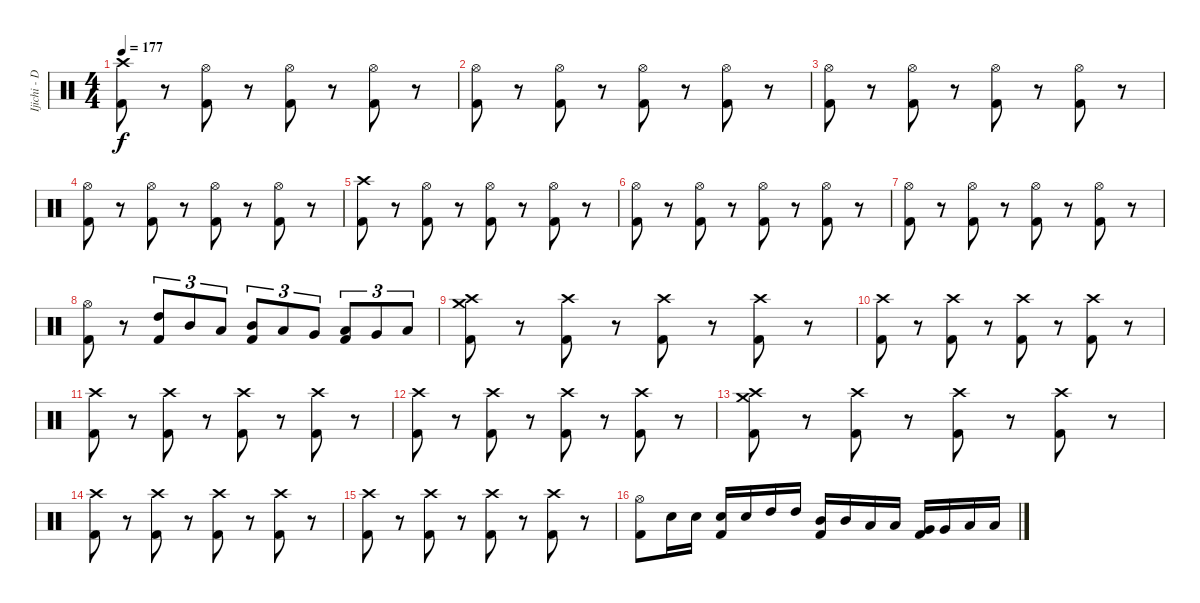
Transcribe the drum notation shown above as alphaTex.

\track ("Ijichi - Drums" "Ijichi - D") {instrument percussion}
\staff {score}
\articulation defaults
\ts (4 4)
\tempo 177
\clef neutral
\ks c
("Crash high (hit)" "Kick (hit) 2").8{dy f} r.8 ("Hi-Hat (open)" "Kick (hit) 2").8 r.8 ("Hi-Hat (open)" "Kick (hit) 2").8 r.8 ("Hi-Hat (open)" "Kick (hit) 2").8 r.8 |
("Hi-Hat (open)" "Kick (hit) 2").8 r.8 ("Hi-Hat (open)" "Kick (hit) 2").8 r.8 ("Hi-Hat (open)" "Kick (hit) 2").8 r.8 ("Hi-Hat (open)" "Kick (hit) 2").8 r.8 |
("Hi-Hat (open)" "Kick (hit) 2").8 r.8 ("Hi-Hat (open)" "Kick (hit) 2").8 r.8 ("Hi-Hat (open)" "Kick (hit) 2").8 r.8 ("Hi-Hat (open)" "Kick (hit) 2").8 r.8 |
("Hi-Hat (open)" "Kick (hit) 2").8 r.8 ("Hi-Hat (open)" "Kick (hit) 2").8 r.8 ("Hi-Hat (open)" "Kick (hit) 2").8 r.8 ("Hi-Hat (open)" "Kick (hit) 2").8 r.8 |
("Crash high (hit)" "Kick (hit) 2").8 r.8 ("Hi-Hat (open)" "Kick (hit) 2").8 r.8 ("Hi-Hat (open)" "Kick (hit) 2").8 r.8 ("Hi-Hat (open)" "Kick (hit) 2").8 r.8 |
("Hi-Hat (open)" "Kick (hit) 2").8 r.8 ("Hi-Hat (open)" "Kick (hit) 2").8 r.8 ("Hi-Hat (open)" "Kick (hit) 2").8 r.8 ("Hi-Hat (open)" "Kick (hit) 2").8 r.8 |
("Hi-Hat (open)" "Kick (hit) 2").8 r.8 ("Hi-Hat (open)" "Kick (hit) 2").8 r.8 ("Hi-Hat (open)" "Kick (hit) 2").8 r.8 ("Hi-Hat (open)" "Kick (hit) 2").8 r.8 |
("Hi-Hat (open)" "Kick (hit) 2").8 r.8 ("High Tom (hit)" "Kick (hit) 2").8{tu (3 2)} "Mid Tom (hit)".8{tu (3 2)} "Low Tom (hit)".8{tu (3 2)} ("Mid Tom (hit)" "Kick (hit) 2").8{tu (3 2)} "Low Tom (hit)".8{tu (3 2)} "Very Low Tom (hit)".8{tu (3 2)} ("Low Tom (hit)" "Kick (hit) 2").8{tu (3 2)} "Very Low Tom (hit)".8{tu (3 2)} "Low Floor Tom (hit)".8{tu (3 2)} |
("Crash high (hit)" "Crash medium (hit)" "Kick (hit) 2").8 r.8 ("Crash high (hit)" "Kick (hit) 2").8 r.8 ("Crash high (hit)" "Kick (hit) 2").8 r.8 ("Crash high (hit)" "Kick (hit) 2").8 r.8 |
("Crash high (hit)" "Kick (hit) 2").8 r.8 ("Crash high (hit)" "Kick (hit) 2").8 r.8 ("Crash high (hit)" "Kick (hit) 2").8 r.8 ("Crash high (hit)" "Kick (hit) 2").8 r.8 |
("Crash high (hit)" "Kick (hit) 2").8 r.8 ("Crash high (hit)" "Kick (hit) 2").8 r.8 ("Crash high (hit)" "Kick (hit) 2").8 r.8 ("Crash high (hit)" "Kick (hit) 2").8 r.8 |
("Crash high (hit)" "Kick (hit) 2").8 r.8 ("Crash high (hit)" "Kick (hit) 2").8 r.8 ("Crash high (hit)" "Kick (hit) 2").8 r.8 ("Crash high (hit)" "Kick (hit) 2").8 r.8 |
("Crash high (hit)" "Crash medium (hit)" "Kick (hit) 2").8 r.8 ("Crash high (hit)" "Kick (hit) 2").8 r.8 ("Crash high (hit)" "Kick (hit) 2").8 r.8 ("Crash high (hit)" "Kick (hit) 2").8 r.8 |
("Crash high (hit)" "Kick (hit) 2").8 r.8 ("Crash high (hit)" "Kick (hit) 2").8 r.8 ("Crash high (hit)" "Kick (hit) 2").8 r.8 ("Crash high (hit)" "Kick (hit) 2").8 r.8 |
("Crash high (hit)" "Kick (hit) 2").8 r.8 ("Crash high (hit)" "Kick (hit) 2").8 r.8 ("Crash high (hit)" "Kick (hit) 2").8 r.8 ("Crash high (hit)" "Kick (hit) 2").8 r.8 |
("Hi-Hat (open)" "Kick (hit) 2").8 "Snare (hit) 2".16 "Snare (hit) 2".16 ("Snare (hit) 2" "Kick (hit) 2").16 "Snare (hit) 2".16 "High Tom (hit)".16 "High Tom (hit)".16 ("Mid Tom (hit)" "Kick (hit) 2").16 "Mid Tom (hit)".16 "Low Tom (hit)".16 "Low Tom (hit)".16 ("Very Low Tom (hit)" "Kick (hit) 2").16 "Very Low Tom (hit)".16 "Low Floor Tom (hit)".16 "Low Floor Tom (hit)".16
